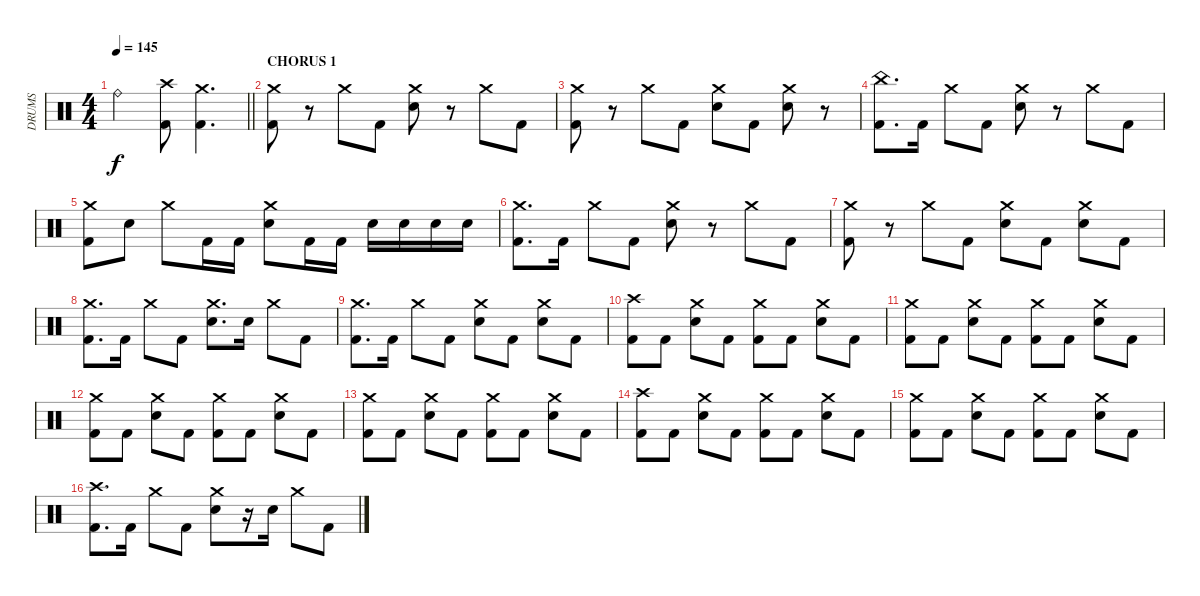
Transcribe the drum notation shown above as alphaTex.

\track ("DRUMS" "DRUMS") {instrument percussion}
\staff {score}
\articulation defaults
\ts (4 4)
\tempo 145
\clef neutral
\barLineRight lightlight
\ks c "Ride (bell)".2{dy f}
("Crash high (hit)" "Kick (hit) 2").8 ("Crash medium (hit)" "Kick (hit) 2").4{d} |
\section ("" "CHORUS 1")
("Crash medium (hit)" "Kick (hit) 2").8 r.8 "Crash medium (hit)".8 "Kick (hit) 2".8 ("Crash medium (hit)" "Electric Snare (hit)").8 r.8 "Crash medium (hit)".8 "Kick (hit) 2".8 |
("Crash medium (hit)" "Kick (hit) 2").8 r.8 "Crash medium (hit)".8 "Kick (hit) 2".8 ("Crash medium (hit)" "Electric Snare (hit)").8 "Kick (hit) 2".8 ("Crash medium (hit)" "Electric Snare (hit)").8 r.8 |
("China (hit)" "Kick (hit) 2").8{d} "Kick (hit) 2".16 "Crash medium (hit)".8 "Kick (hit) 2".8 ("Crash medium (hit)" "Electric Snare (hit)").8 r.8 "Crash medium (hit)".8 "Kick (hit) 2".8 |
("Crash medium (hit)" "Kick (hit) 2").8 "Electric Snare (hit)".8 "Crash medium (hit)".8 "Kick (hit) 2".16 "Kick (hit) 2".16 ("Crash medium (hit)" "Electric Snare (hit)").8 "Kick (hit) 2".16 "Kick (hit) 2".16 "Electric Snare (hit)".16 "Electric Snare (hit)".16 "Electric Snare (hit)".16 "Electric Snare (hit)".16 |
("Crash medium (hit)" "Kick (hit) 2").8{d} "Kick (hit) 2".16 "Crash medium (hit)".8 "Kick (hit) 2".8 ("Crash medium (hit)" "Electric Snare (hit)").8 r.8 "Crash medium (hit)".8 "Kick (hit) 2".8 |
("Crash medium (hit)" "Kick (hit) 2").8 r.8 "Crash medium (hit)".8 "Kick (hit) 2".8 ("Crash medium (hit)" "Electric Snare (hit)").8 "Kick (hit) 2".8 ("Crash medium (hit)" "Electric Snare (hit)").8 "Kick (hit) 2".8 |
("Crash medium (hit)" "Kick (hit) 2").8{d} "Kick (hit) 2".16 "Crash medium (hit)".8 "Kick (hit) 2".8 ("Crash medium (hit)" "Electric Snare (hit)").8{d} "Electric Snare (hit)".16 "Crash medium (hit)".8 "Kick (hit) 2".8 |
("Crash medium (hit)" "Kick (hit) 2").8{d} "Kick (hit) 2".16 "Crash medium (hit)".8 "Kick (hit) 2".8 ("Crash medium (hit)" "Electric Snare (hit)").8 "Kick (hit) 2".8 ("Crash medium (hit)" "Electric Snare (hit)").8 "Kick (hit) 2".8 |
("Crash high (hit)" "Kick (hit) 2").8 "Kick (hit) 2".8 ("Crash medium (hit)" "Electric Snare (hit)").8 "Kick (hit) 2".8 ("Crash medium (hit)" "Kick (hit) 2").8 "Kick (hit) 2".8 ("Crash medium (hit)" "Electric Snare (hit)").8 "Kick (hit) 2".8 |
("Crash medium (hit)" "Kick (hit) 2").8 "Kick (hit) 2".8 ("Crash medium (hit)" "Electric Snare (hit)").8 "Kick (hit) 2".8 ("Crash medium (hit)" "Kick (hit) 2").8 "Kick (hit) 2".8 ("Crash medium (hit)" "Electric Snare (hit)").8 "Kick (hit) 2".8 |
("Crash medium (hit)" "Kick (hit) 2").8 "Kick (hit) 2".8 ("Crash medium (hit)" "Electric Snare (hit)").8 "Kick (hit) 2".8 ("Crash medium (hit)" "Kick (hit) 2").8 "Kick (hit) 2".8 ("Crash medium (hit)" "Electric Snare (hit)").8 "Kick (hit) 2".8 |
("Crash medium (hit)" "Kick (hit) 2").8 "Kick (hit) 2".8 ("Crash medium (hit)" "Electric Snare (hit)").8 "Kick (hit) 2".8 ("Crash medium (hit)" "Kick (hit) 2").8 "Kick (hit) 2".8 ("Crash medium (hit)" "Electric Snare (hit)").8 "Kick (hit) 2".8 |
("Crash high (hit)" "Kick (hit) 2").8 "Kick (hit) 2".8 ("Crash medium (hit)" "Electric Snare (hit)").8 "Kick (hit) 2".8 ("Crash medium (hit)" "Kick (hit) 2").8 "Kick (hit) 2".8 ("Crash medium (hit)" "Electric Snare (hit)").8 "Kick (hit) 2".8 |
("Crash medium (hit)" "Kick (hit) 2").8 "Kick (hit) 2".8 ("Crash medium (hit)" "Electric Snare (hit)").8 "Kick (hit) 2".8 ("Crash medium (hit)" "Kick (hit) 2").8 "Kick (hit) 2".8 ("Crash medium (hit)" "Electric Snare (hit)").8 "Kick (hit) 2".8 |
("Crash high (hit)" "Kick (hit) 2").8{d} "Kick (hit) 2".16 "Crash medium (hit)".8 "Kick (hit) 2".8 ("Crash medium (hit)" "Electric Snare (hit)").8 r.16 "Electric Snare (hit)".16 "Crash medium (hit)".8 "Kick (hit) 2".8
